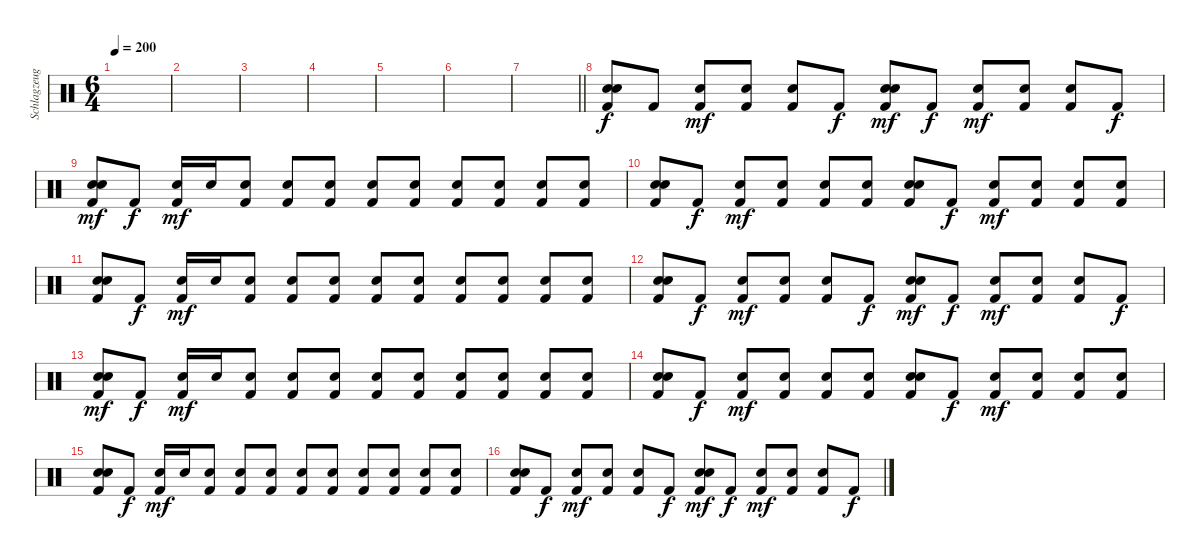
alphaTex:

\track ("Schlagzeug" "Schlagzeug") {instrument percussion}
\staff {score}
\articulation defaults
\ts (6 4)
\tempo 200
\clef neutral
\ks c
|
|
|
|
|
|
\barLineRight lightlight
|
\section ("" "")
("Electric Snare (hit)" "Electric Snare (hit)" "Kick (hit) 2").8{bd 480} "Kick (hit) 2".8{dy f} ("Electric Snare (hit)" "Kick (hit) 2").8{dy mf} ("Electric Snare (hit)" "Kick (hit) 2").8 ("Electric Snare (hit)" "Kick (hit) 2").8 "Kick (hit) 2".8{dy f} ("Electric Snare (hit)" "Electric Snare (hit)" "Kick (hit) 2").8{bd 480 dy mf} "Kick (hit) 2".8{dy f} ("Electric Snare (hit)" "Kick (hit) 2").8{dy mf} ("Electric Snare (hit)" "Kick (hit) 2").8 ("Electric Snare (hit)" "Kick (hit) 2").8 "Kick (hit) 2".8{dy f} |
("Electric Snare (hit)" "Electric Snare (hit)" "Kick (hit) 2").8{bd 480 dy mf} "Kick (hit) 2".8{dy f} ("Electric Snare (hit)" "Kick (hit) 2").16{dy mf} "Electric Snare (hit)".16 ("Electric Snare (hit)" "Kick (hit) 2").8 ("Electric Snare (hit)" "Kick (hit) 2").8 ("Electric Snare (hit)" "Kick (hit) 2").8 ("Electric Snare (hit)" "Kick (hit) 2").8 ("Electric Snare (hit)" "Kick (hit) 2").8 ("Electric Snare (hit)" "Kick (hit) 2").8 ("Electric Snare (hit)" "Kick (hit) 2").8 ("Electric Snare (hit)" "Kick (hit) 2").8 ("Electric Snare (hit)" "Kick (hit) 2").8 |
("Electric Snare (hit)" "Electric Snare (hit)" "Kick (hit) 2").8{bd 480} "Kick (hit) 2".8{dy f} ("Electric Snare (hit)" "Kick (hit) 2").8{dy mf} ("Electric Snare (hit)" "Kick (hit) 2").8 ("Electric Snare (hit)" "Kick (hit) 2").8 ("Electric Snare (hit)" "Kick (hit) 2").8 ("Electric Snare (hit)" "Electric Snare (hit)" "Kick (hit) 2").8{bd 480} "Kick (hit) 2".8{dy f} ("Electric Snare (hit)" "Kick (hit) 2").8{dy mf} ("Electric Snare (hit)" "Kick (hit) 2").8 ("Electric Snare (hit)" "Kick (hit) 2").8 ("Electric Snare (hit)" "Kick (hit) 2").8 |
("Electric Snare (hit)" "Electric Snare (hit)" "Kick (hit) 2").8{bd 480} "Kick (hit) 2".8{dy f} ("Electric Snare (hit)" "Kick (hit) 2").16{dy mf} "Electric Snare (hit)".16 ("Electric Snare (hit)" "Kick (hit) 2").8 ("Electric Snare (hit)" "Kick (hit) 2").8 ("Electric Snare (hit)" "Kick (hit) 2").8 ("Electric Snare (hit)" "Kick (hit) 2").8 ("Electric Snare (hit)" "Kick (hit) 2").8 ("Electric Snare (hit)" "Kick (hit) 2").8 ("Electric Snare (hit)" "Kick (hit) 2").8 ("Electric Snare (hit)" "Kick (hit) 2").8 ("Electric Snare (hit)" "Kick (hit) 2").8 |
("Electric Snare (hit)" "Electric Snare (hit)" "Kick (hit) 2").8{bd 480} "Kick (hit) 2".8{dy f} ("Electric Snare (hit)" "Kick (hit) 2").8{dy mf} ("Electric Snare (hit)" "Kick (hit) 2").8 ("Electric Snare (hit)" "Kick (hit) 2").8 "Kick (hit) 2".8{dy f} ("Electric Snare (hit)" "Electric Snare (hit)" "Kick (hit) 2").8{bd 480 dy mf} "Kick (hit) 2".8{dy f} ("Electric Snare (hit)" "Kick (hit) 2").8{dy mf} ("Electric Snare (hit)" "Kick (hit) 2").8 ("Electric Snare (hit)" "Kick (hit) 2").8 "Kick (hit) 2".8{dy f} |
("Electric Snare (hit)" "Electric Snare (hit)" "Kick (hit) 2").8{bd 480 dy mf} "Kick (hit) 2".8{dy f} ("Electric Snare (hit)" "Kick (hit) 2").16{dy mf} "Electric Snare (hit)".16 ("Electric Snare (hit)" "Kick (hit) 2").8 ("Electric Snare (hit)" "Kick (hit) 2").8 ("Electric Snare (hit)" "Kick (hit) 2").8 ("Electric Snare (hit)" "Kick (hit) 2").8 ("Electric Snare (hit)" "Kick (hit) 2").8 ("Electric Snare (hit)" "Kick (hit) 2").8 ("Electric Snare (hit)" "Kick (hit) 2").8 ("Electric Snare (hit)" "Kick (hit) 2").8 ("Electric Snare (hit)" "Kick (hit) 2").8 |
("Electric Snare (hit)" "Electric Snare (hit)" "Kick (hit) 2").8{bd 480} "Kick (hit) 2".8{dy f} ("Electric Snare (hit)" "Kick (hit) 2").8{dy mf} ("Electric Snare (hit)" "Kick (hit) 2").8 ("Electric Snare (hit)" "Kick (hit) 2").8 ("Electric Snare (hit)" "Kick (hit) 2").8 ("Electric Snare (hit)" "Electric Snare (hit)" "Kick (hit) 2").8{bd 480} "Kick (hit) 2".8{dy f} ("Electric Snare (hit)" "Kick (hit) 2").8{dy mf} ("Electric Snare (hit)" "Kick (hit) 2").8 ("Electric Snare (hit)" "Kick (hit) 2").8 ("Electric Snare (hit)" "Kick (hit) 2").8 |
("Electric Snare (hit)" "Electric Snare (hit)" "Kick (hit) 2").8{bd 480} "Kick (hit) 2".8{dy f} ("Electric Snare (hit)" "Kick (hit) 2").16{dy mf} "Electric Snare (hit)".16 ("Electric Snare (hit)" "Kick (hit) 2").8 ("Electric Snare (hit)" "Kick (hit) 2").8 ("Electric Snare (hit)" "Kick (hit) 2").8 ("Electric Snare (hit)" "Kick (hit) 2").8 ("Electric Snare (hit)" "Kick (hit) 2").8 ("Electric Snare (hit)" "Kick (hit) 2").8 ("Electric Snare (hit)" "Kick (hit) 2").8 ("Electric Snare (hit)" "Kick (hit) 2").8 ("Electric Snare (hit)" "Kick (hit) 2").8 |
("Electric Snare (hit)" "Electric Snare (hit)" "Kick (hit) 2").8{bd 480} "Kick (hit) 2".8{dy f} ("Electric Snare (hit)" "Kick (hit) 2").8{dy mf} ("Electric Snare (hit)" "Kick (hit) 2").8 ("Electric Snare (hit)" "Kick (hit) 2").8 "Kick (hit) 2".8{dy f} ("Electric Snare (hit)" "Electric Snare (hit)" "Kick (hit) 2").8{bd 480 dy mf} "Kick (hit) 2".8{dy f} ("Electric Snare (hit)" "Kick (hit) 2").8{dy mf} ("Electric Snare (hit)" "Kick (hit) 2").8 ("Electric Snare (hit)" "Kick (hit) 2").8 "Kick (hit) 2".8{dy f}
